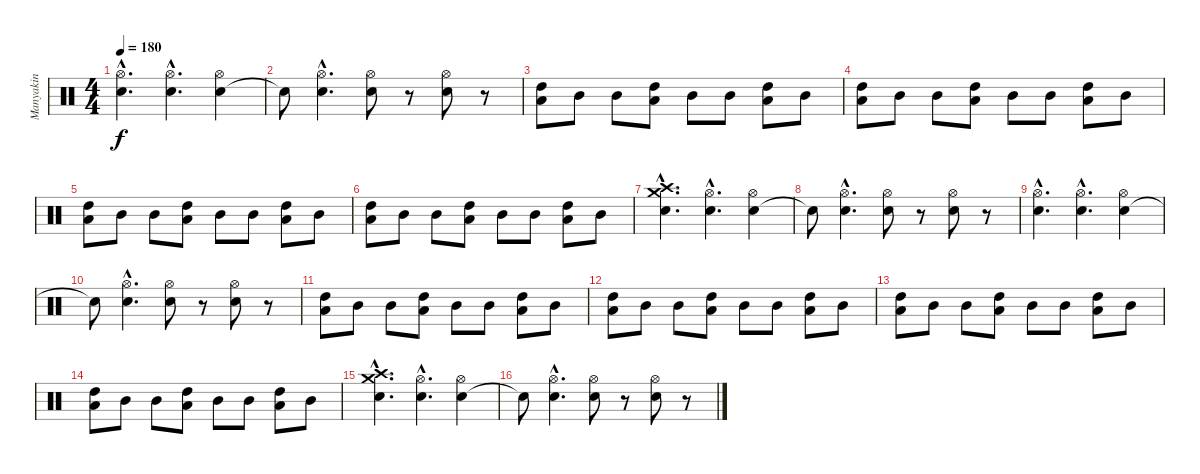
\track ("Manyakin" "Manyakin") {instrument percussion}
\staff {score}
\articulation defaults
\ts (4 4)
\tempo 180
\clef neutral
\ks c
("Snare (hit) 2"{hac} "Hi-Hat (open)"{hac}).4{d dy f} ("Snare (hit) 2"{hac} "Hi-Hat (open)"{hac}).4{d} ("Snare (hit) 2" "Hi-Hat (open)").4 |
"Snare (hit)"{t}.8 ("Snare (hit) 2"{hac} "Hi-Hat (open)"{hac}).4{d} ("Snare (hit) 2" "Hi-Hat (open)").8 r.8 ("Snare (hit) 2" "Hi-Hat (open)").8 r.8 |
("Low Tom (hit)" "High Tom (hit)").8 "Mid Tom (hit)".8 "Mid Tom (hit)".8 ("High Tom (hit)" "Low Tom (hit)").8 "Mid Tom (hit)".8 "Mid Tom (hit)".8 ("High Tom (hit)" "Low Tom (hit)").8 "Mid Tom (hit)".8 |
("High Tom (hit)" "Low Tom (hit)").8 "Mid Tom (hit)".8 "Mid Tom (hit)".8 ("High Tom (hit)" "Low Tom (hit)").8 "Mid Tom (hit)".8 "Mid Tom (hit)".8 ("High Tom (hit)" "Low Tom (hit)").8 "Mid Tom (hit)".8 |
("Low Tom (hit)" "High Tom (hit)").8 "Mid Tom (hit)".8 "Mid Tom (hit)".8 ("Low Tom (hit)" "High Tom (hit)").8 "Mid Tom (hit)".8 "Mid Tom (hit)".8 ("Low Tom (hit)" "High Tom (hit)").8 "Mid Tom (hit)".8 |
("High Tom (hit)" "Low Tom (hit)").8 "Mid Tom (hit)".8 "Mid Tom (hit)".8 ("High Tom (hit)" "Low Tom (hit)").8 "Mid Tom (hit)".8 "Mid Tom (hit)".8 ("High Tom (hit)" "Low Tom (hit)").8 "Mid Tom (hit)".8 |
("Snare (hit) 2"{hac} "Crash high (hit)"{hac} "Crash medium (hit)"{hac}).4{d} ("Snare (hit) 2"{hac} "Hi-Hat (open)"{hac}).4{d} ("Snare (hit) 2" "Hi-Hat (open)").4 |
"Snare (hit)"{t}.8 ("Snare (hit) 2"{hac} "Hi-Hat (open)"{hac}).4{d} ("Snare (hit) 2" "Hi-Hat (open)").8 r.8 ("Snare (hit) 2" "Hi-Hat (open)").8 r.8 |
("Snare (hit) 2"{hac} "Hi-Hat (open)"{hac}).4{d} ("Snare (hit) 2"{hac} "Hi-Hat (open)"{hac}).4{d} ("Snare (hit) 2" "Hi-Hat (open)").4 |
"Snare (hit)"{t}.8 ("Snare (hit) 2"{hac} "Hi-Hat (open)"{hac}).4{d} ("Snare (hit) 2" "Hi-Hat (open)").8 r.8 ("Snare (hit) 2" "Hi-Hat (open)").8 r.8 |
("High Tom (hit)" "Low Tom (hit)").8 "Mid Tom (hit)".8 "Mid Tom (hit)".8 ("Low Tom (hit)" "High Tom (hit)").8 "Mid Tom (hit)".8 "Mid Tom (hit)".8 ("High Tom (hit)" "Low Tom (hit)").8 "Mid Tom (hit)".8 |
("Low Tom (hit)" "High Tom (hit)").8 "Mid Tom (hit)".8 "Mid Tom (hit)".8 ("High Tom (hit)" "Low Tom (hit)").8 "Mid Tom (hit)".8 "Mid Tom (hit)".8 ("Low Tom (hit)" "High Tom (hit)").8 "Mid Tom (hit)".8 |
("Low Tom (hit)" "High Tom (hit)").8 "Mid Tom (hit)".8 "Mid Tom (hit)".8 ("High Tom (hit)" "Low Tom (hit)").8 "Mid Tom (hit)".8 "Mid Tom (hit)".8 ("Low Tom (hit)" "High Tom (hit)").8 "Mid Tom (hit)".8 |
("Low Tom (hit)" "High Tom (hit)").8 "Mid Tom (hit)".8 "Mid Tom (hit)".8 ("High Tom (hit)" "Low Tom (hit)").8 "Mid Tom (hit)".8 "Mid Tom (hit)".8 ("High Tom (hit)" "Low Tom (hit)").8 "Mid Tom (hit)".8 |
("Snare (hit) 2"{hac} "Crash high (hit)"{hac} "Crash medium (hit)"{hac}).4{d} ("Snare (hit) 2"{hac} "Hi-Hat (open)"{hac}).4{d} ("Snare (hit) 2" "Hi-Hat (open)").4 |
"Snare (hit)"{t}.8 ("Snare (hit) 2"{hac} "Hi-Hat (open)"{hac}).4{d} ("Snare (hit) 2" "Hi-Hat (open)").8 r.8 ("Snare (hit) 2" "Hi-Hat (open)").8 r.8
